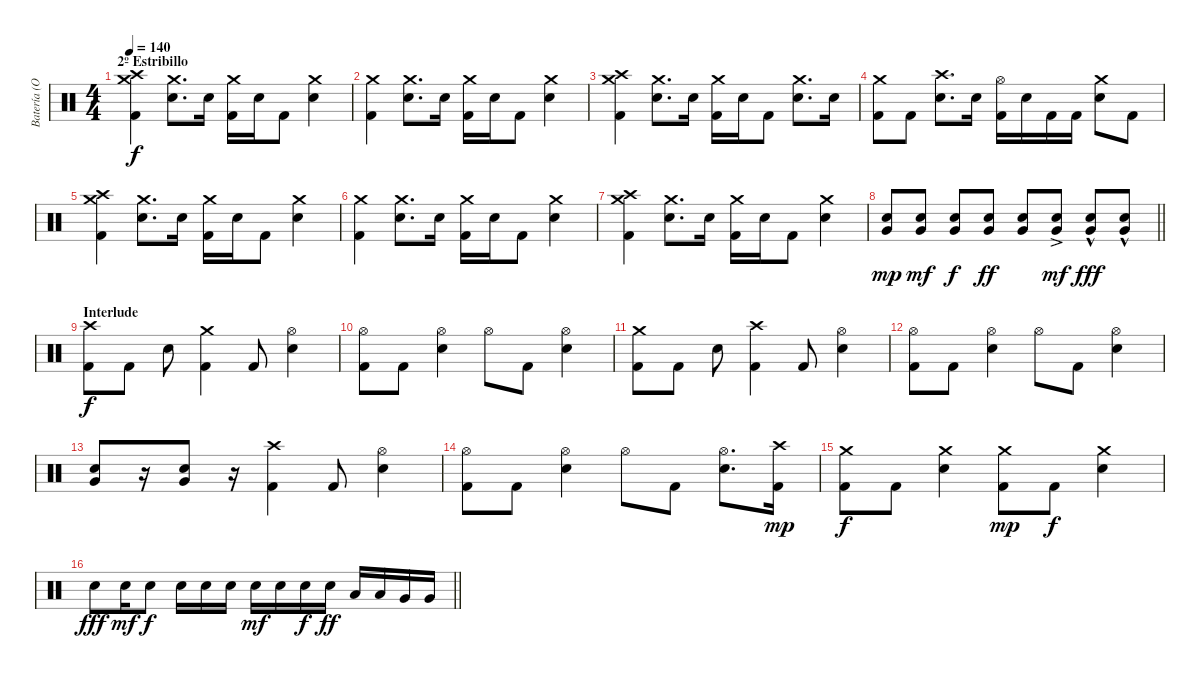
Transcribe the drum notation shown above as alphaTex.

\track ("Batería (Oxi)" "Batería (O") {instrument percussion}
\staff {score}
\articulation defaults
\ts (4 4)
\section ("" "2º Estribillo")
\tempo 140
\clef neutral
\ks c
("Crash medium (hit)" "Crash high (hit)" "Kick (hit) 2").4{dy f} ("Crash medium (hit)" "Electric Snare (hit)").8{d} "Electric Snare (hit)".16 ("Crash medium (hit)" "Kick (hit) 2").16 "Electric Snare (hit)".16 "Kick (hit) 2".8 ("Crash medium (hit)" "Electric Snare (hit)").4 |
("Crash medium (hit)" "Kick (hit) 2").4 ("Crash medium (hit)" "Electric Snare (hit)").8{d} "Electric Snare (hit)".16 ("Crash medium (hit)" "Kick (hit) 2").16 "Electric Snare (hit)".16 "Kick (hit) 2".8 ("Crash medium (hit)" "Electric Snare (hit)").4 |
("Crash medium (hit)" "Crash high (hit)" "Kick (hit) 2").4 ("Crash medium (hit)" "Electric Snare (hit)").8{d} "Electric Snare (hit)".16 ("Crash medium (hit)" "Kick (hit) 2").16 "Electric Snare (hit)".16 "Kick (hit) 2".8 ("Crash medium (hit)" "Electric Snare (hit)").8{d} "Electric Snare (hit)".16 |
("Crash medium (hit)" "Kick (hit) 2").8 "Kick (hit) 2".8 ("Crash high (hit)" "Electric Snare (hit)").8{d} "Electric Snare (hit)".16 ("Hi-Hat (open)" "Kick (hit) 2").16 "Electric Snare (hit)".16 "Kick (hit) 2".16 "Kick (hit) 2".16 ("Crash medium (hit)" "Electric Snare (hit)").8 "Kick (hit) 2".8 |
("Crash medium (hit)" "Crash high (hit)" "Kick (hit) 2").4 ("Crash medium (hit)" "Electric Snare (hit)").8{d} "Electric Snare (hit)".16 ("Crash medium (hit)" "Kick (hit) 2").16 "Electric Snare (hit)".16 "Kick (hit) 2".8 ("Crash medium (hit)" "Electric Snare (hit)").4 |
("Crash medium (hit)" "Kick (hit) 2").4 ("Crash medium (hit)" "Electric Snare (hit)").8{d} "Electric Snare (hit)".16 ("Crash medium (hit)" "Kick (hit) 2").16 "Electric Snare (hit)".16 "Kick (hit) 2".8 ("Crash medium (hit)" "Electric Snare (hit)").4 |
("Crash medium (hit)" "Crash high (hit)" "Kick (hit) 2").4 ("Crash medium (hit)" "Electric Snare (hit)").8{d} "Electric Snare (hit)".16 ("Crash medium (hit)" "Kick (hit) 2").16 "Electric Snare (hit)".16 "Kick (hit) 2".8 ("Crash medium (hit)" "Electric Snare (hit)").4 |
\barLineRight lightlight
("Very Low Tom (hit)" "Electric Snare (hit)").8{dy mp} ("Very Low Tom (hit)" "Electric Snare (hit)").8{dy mf} ("Very Low Tom (hit)" "Electric Snare (hit)").8{dy f} ("Very Low Tom (hit)" "Electric Snare (hit)").8{dy ff} ("Very Low Tom (hit)" "Electric Snare (hit)").8 ("Very Low Tom (hit)"{ac} "Electric Snare (hit)"{ac}).8{dy mf} ("Very Low Tom (hit)"{hac} "Electric Snare (hit)"{hac}).8{dy fff} ("Very Low Tom (hit)"{hac} "Electric Snare (hit)"{hac}).8 |
\section ("" "Interlude")
("Crash high (hit)" "Kick (hit) 2").8{dy f} "Kick (hit) 2".8 "Electric Snare (hit)".8 ("Crash medium (hit)" "Kick (hit) 2").4 "Kick (hit) 2".8 ("Hi-Hat (open)" "Electric Snare (hit)").4 |
("Hi-Hat (open)" "Kick (hit) 2").8 "Kick (hit) 2".8 ("Hi-Hat (open)" "Electric Snare (hit)").4 "Hi-Hat (open)".8 "Kick (hit) 2".8 ("Hi-Hat (open)" "Electric Snare (hit)").4 |
("Crash medium (hit)" "Kick (hit) 2").8 "Kick (hit) 2".8 "Electric Snare (hit)".8 ("Crash high (hit)" "Kick (hit) 2").4 "Kick (hit) 2".8 ("Hi-Hat (open)" "Electric Snare (hit)").4 |
("Hi-Hat (open)" "Kick (hit) 2").8 "Kick (hit) 2".8 ("Hi-Hat (open)" "Electric Snare (hit)").4 "Hi-Hat (open)".8 "Kick (hit) 2".8 ("Hi-Hat (open)" "Electric Snare (hit)").4 |
("Very Low Tom (hit)" "Electric Snare (hit)").8 r.16 ("Very Low Tom (hit)" "Electric Snare (hit)").8 r.16 ("Crash high (hit)" "Kick (hit) 2").4 "Kick (hit) 2".8 ("Hi-Hat (open)" "Electric Snare (hit)").4 |
("Hi-Hat (open)" "Kick (hit) 2").8 "Kick (hit) 2".8 ("Hi-Hat (open)" "Electric Snare (hit)").4 "Hi-Hat (open)".8 "Kick (hit) 2".8 ("Hi-Hat (open)" "Electric Snare (hit)").8{d} ("Crash high (hit)" "Kick (hit) 2").16{dy mp} |
("Crash medium (hit)" "Kick (hit) 2").8{dy f} "Kick (hit) 2".8 ("Crash medium (hit)" "Electric Snare (hit)").4 ("Crash medium (hit)" "Kick (hit) 2").8{dy mp} "Kick (hit) 2".8{dy f} ("Crash medium (hit)" "Electric Snare (hit)").4 |
\barLineRight lightlight "Electric Snare (hit)".8{dy fff} "Electric Snare (hit)".16{dy mf} "Electric Snare (hit)".8{dy f} "Electric Snare (hit)".16 "Electric Snare (hit)".16 "Electric Snare (hit)".16 "Electric Snare (hit)".16{dy mf} "Electric Snare (hit)".16 "Electric Snare (hit)".16{dy f} "Electric Snare (hit)".16{dy ff} "Low Tom (hit)".16 "Low Tom (hit)".16 "Very Low Tom (hit)".16 "Very Low Tom (hit)".16
